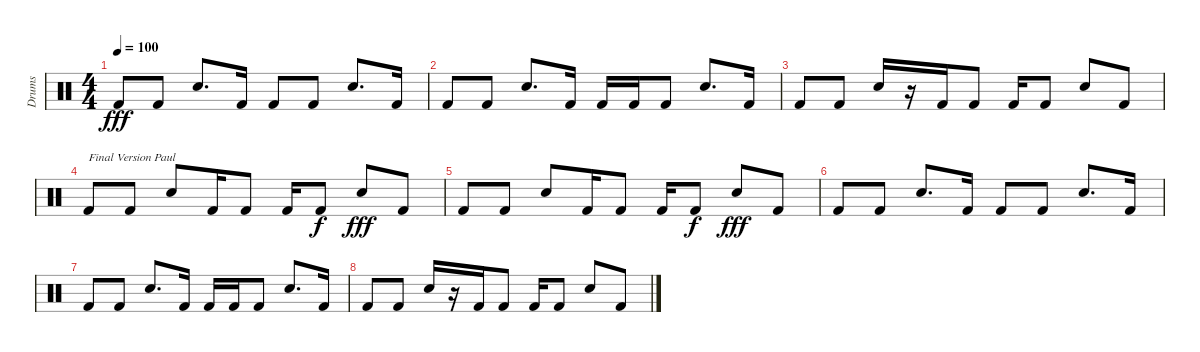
\track ("Drums" "Drums") {instrument percussion}
\staff {score}
\articulation defaults
\ts (4 4)
\tempo 100
\clef neutral
\ks c "Kick (hit) 2".8{dy fff} "Kick (hit) 2".8 "Electric Snare (hit)".8{d} "Kick (hit) 2".16 "Kick (hit) 2".8 "Kick (hit) 2".8 "Electric Snare (hit)".8{d} "Kick (hit) 2".16
|
"Kick (hit) 2".8 "Kick (hit) 2".8 "Electric Snare (hit)".8{d} "Kick (hit) 2".16 "Kick (hit) 2".16 "Kick (hit) 2".16 "Kick (hit) 2".8 "Electric Snare (hit)".8{d} "Kick (hit) 2".16 |
"Kick (hit) 2".8 "Kick (hit) 2".8 "Electric Snare (hit)".16 r.16 "Kick (hit) 2".16 "Kick (hit) 2".8 "Kick (hit) 2".16 "Kick (hit) 2".8 "Electric Snare (hit)".8 "Kick (hit) 2".8 |
"Kick (hit) 2".8{txt "Final Version Paul"} "Kick (hit) 2".8 "Electric Snare (hit)".8 "Kick (hit) 2".16 "Kick (hit) 2".8 "Kick (hit) 2".16 "Kick (hit) 2".8{dy f} "Electric Snare (hit)".8{dy fff} "Kick (hit) 2".8 |
"Kick (hit) 2".8 "Kick (hit) 2".8 "Electric Snare (hit)".8 "Kick (hit) 2".16 "Kick (hit) 2".8 "Kick (hit) 2".16 "Kick (hit) 2".8{dy f} "Electric Snare (hit)".8{dy fff} "Kick (hit) 2".8 |
"Kick (hit) 2".8 "Kick (hit) 2".8 "Electric Snare (hit)".8{d} "Kick (hit) 2".16 "Kick (hit) 2".8 "Kick (hit) 2".8 "Electric Snare (hit)".8{d} "Kick (hit) 2".16 |
"Kick (hit) 2".8 "Kick (hit) 2".8 "Electric Snare (hit)".8{d} "Kick (hit) 2".16 "Kick (hit) 2".16 "Kick (hit) 2".16 "Kick (hit) 2".8 "Electric Snare (hit)".8{d} "Kick (hit) 2".16 |
"Kick (hit) 2".8 "Kick (hit) 2".8 "Electric Snare (hit)".16 r.16 "Kick (hit) 2".16 "Kick (hit) 2".8 "Kick (hit) 2".16 "Kick (hit) 2".8 "Electric Snare (hit)".8 "Kick (hit) 2".8
